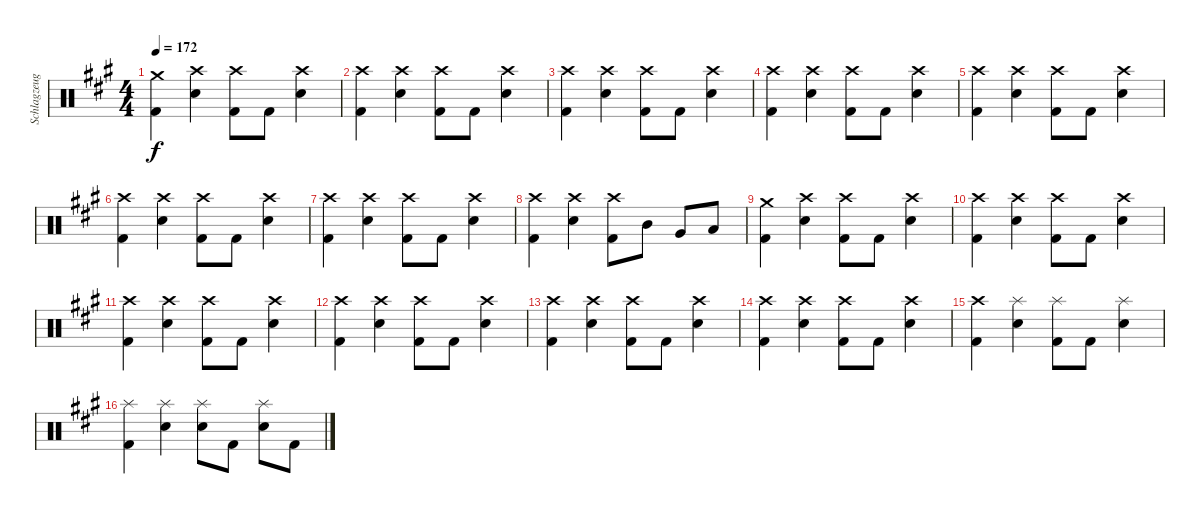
\track ("Schlagzeug" "Schlagzeug") {instrument percussion}
\staff {score}
\articulation defaults
\ts (4 4)
\tempo 172
\clef neutral
\ks a
("Crash medium (hit)" "Kick (hit) 2").4{dy f} ("Crash high (hit)" "Snare (hit) 2").4 ("Crash high (hit)" "Kick (hit) 2").8 "Kick (hit) 2".8 ("Crash high (hit)" "Snare (hit) 2").4 |
("Crash high (hit)" "Kick (hit) 2").4 ("Crash high (hit)" "Snare (hit) 2").4 ("Crash high (hit)" "Kick (hit) 2").8 "Kick (hit) 2".8 ("Crash high (hit)" "Snare (hit) 2").4 |
("Crash high (hit)" "Kick (hit) 2").4 ("Crash high (hit)" "Snare (hit) 2").4 ("Crash high (hit)" "Kick (hit) 2").8 "Kick (hit) 2".8 ("Crash high (hit)" "Snare (hit) 2").4 |
("Crash high (hit)" "Kick (hit) 2").4 ("Crash high (hit)" "Snare (hit) 2").4 ("Crash high (hit)" "Kick (hit) 2").8 "Kick (hit) 2".8 ("Crash high (hit)" "Snare (hit) 2").4 |
("Crash high (hit)" "Kick (hit) 2").4 ("Crash high (hit)" "Snare (hit) 2").4 ("Crash high (hit)" "Kick (hit) 2").8 "Kick (hit) 2".8 ("Crash high (hit)" "Snare (hit) 2").4 |
("Crash high (hit)" "Kick (hit) 2").4 ("Crash high (hit)" "Snare (hit) 2").4 ("Crash high (hit)" "Kick (hit) 2").8 "Kick (hit) 2".8 ("Crash high (hit)" "Snare (hit) 2").4 |
("Crash high (hit)" "Kick (hit) 2").4 ("Crash high (hit)" "Snare (hit) 2").4 ("Crash high (hit)" "Kick (hit) 2").8 "Kick (hit) 2".8 ("Crash high (hit)" "Snare (hit) 2").4 |
("Crash high (hit)" "Kick (hit) 2").4 ("Crash high (hit)" "Snare (hit) 2").4 ("Crash high (hit)" "Kick (hit) 2").8 "Mid Tom (hit)".8 "Very Low Tom (hit)".8 "Low Floor Tom (hit)".8 |
("Crash medium (hit)" "Kick (hit) 2").4 ("Crash high (hit)" "Snare (hit) 2").4 ("Crash high (hit)" "Kick (hit) 2").8 "Kick (hit) 2".8 ("Crash high (hit)" "Snare (hit) 2").4 |
("Crash high (hit)" "Kick (hit) 2").4 ("Crash high (hit)" "Snare (hit) 2").4 ("Crash high (hit)" "Kick (hit) 2").8 "Kick (hit) 2".8 ("Crash high (hit)" "Snare (hit) 2").4 |
("Crash high (hit)" "Kick (hit) 2").4 ("Crash high (hit)" "Snare (hit) 2").4 ("Crash high (hit)" "Kick (hit) 2").8 "Kick (hit) 2".8 ("Crash high (hit)" "Snare (hit) 2").4 |
("Crash high (hit)" "Kick (hit) 2").4 ("Crash high (hit)" "Snare (hit) 2").4 ("Crash high (hit)" "Kick (hit) 2").8 "Kick (hit) 2".8 ("Crash high (hit)" "Snare (hit) 2").4 |
("Crash high (hit)" "Kick (hit) 2").4 ("Crash high (hit)" "Snare (hit) 2").4 ("Crash high (hit)" "Kick (hit) 2").8 "Kick (hit) 2".8 ("Crash high (hit)" "Snare (hit) 2").4 |
("Crash high (hit)" "Kick (hit) 2").4 ("Crash high (hit)" "Snare (hit) 2").4 ("Crash high (hit)" "Kick (hit) 2").8 "Kick (hit) 2".8 ("Crash high (hit)" "Snare (hit) 2").4 |
("Crash high (hit)" "Kick (hit) 2").4 ("Splash (hit)" "Snare (hit) 2").4 ("Splash (hit)" "Kick (hit) 2").8 "Kick (hit) 2".8 ("Splash (hit)" "Snare (hit) 2").4 |
("Splash (hit)" "Kick (hit) 2").4 ("Splash (hit)" "Snare (hit) 2").4 ("Splash (hit)" "Snare (hit) 2").8 "Kick (hit) 2".8 ("Splash (hit)" "Snare (hit) 2").8 "Kick (hit) 2".8
